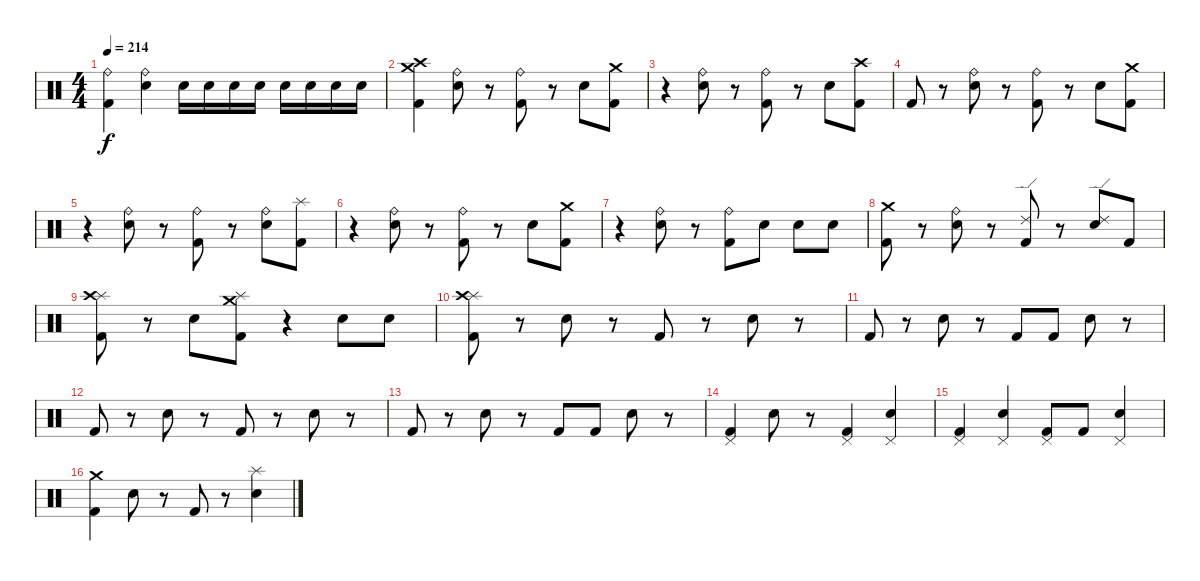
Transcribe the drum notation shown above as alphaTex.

\track "" {instrument percussion}
\staff {score}
\articulation defaults
\ts (4 4)
\tempo 214
\clef neutral
\ks c
("Ride (bell)" "Kick (hit) 2").4{dy f} ("Ride (bell)" "Electric Snare (hit)").4 "Electric Snare (hit)".16 "Electric Snare (hit)".16 "Electric Snare (hit)".16 "Electric Snare (hit)".16 "Electric Snare (hit)".16 "Electric Snare (hit)".16 "Electric Snare (hit)".16 "Electric Snare (hit)".16 |
("Crash medium (hit)" "Crash high (hit)" "Kick (hit) 2").4 ("Ride (bell)" "Electric Snare (hit)").8 r.8 ("Ride (bell)" "Kick (hit) 2").8 r.8 "Electric Snare (hit)".8 ("Crash medium (hit)" "Kick (hit) 2").8 |
r.4 ("Ride (bell)" "Electric Snare (hit)").8 r.8 ("Ride (bell)" "Kick (hit) 2").8 r.8 "Electric Snare (hit)".8 ("Crash high (hit)" "Kick (hit) 2").8 |
"Kick (hit) 2".8 r.8 ("Ride (bell)" "Electric Snare (hit)").8 r.8 ("Ride (bell)" "Kick (hit) 2").8 r.8 "Electric Snare (hit)".8 ("Crash medium (hit)" "Kick (hit) 2").8 |
r.4 ("Ride (bell)" "Electric Snare (hit)").8 r.8 ("Ride (bell)" "Kick (hit) 2").8 r.8 ("Ride (bell)" "Electric Snare (hit)").8 ("Splash (hit)" "Kick (hit) 2").8 |
r.4 ("Ride (bell)" "Electric Snare (hit)").8 r.8 ("Ride (bell)" "Kick (hit) 2").8 r.8 "Electric Snare (hit)".8 ("Crash medium (hit)" "Kick (hit) 2").8 |
r.4 ("Ride (bell)" "Electric Snare (hit)").8 r.8 ("Ride (bell)" "Kick (hit) 2").8 "Snare (hit) 2".8 "Snare (hit) 2".8 "Snare (hit) 2".8 |
("Crash medium (hit)" "Kick (hit) 2").8 r.8 ("Ride (bell)" "Electric Snare (hit)").8 r.8 ("Ride (edge) 2" "Kick (hit) 2").8 r.8 ("Ride (edge) 2" "Electric Snare (hit)").8 "Kick (hit) 2".8 |
("Splash (hit)" "Crash high (hit)" "Kick (hit) 2").8 r.8 "Electric Snare (hit)".8 ("Splash (hit)" "Crash medium (hit)" "Kick (hit) 2").8 r.4 "Electric Snare (hit)".8 "Electric Snare (hit)".8 |
("Splash (hit)" "Crash high (hit)" "Kick (hit) 2").8 r.8 "Electric Snare (hit)".8 r.8 "Kick (hit) 2".8 r.8 "Electric Snare (hit)".8 r.8 |
"Kick (hit) 2".8 r.8 "Electric Snare (hit)".8 r.8 "Kick (hit) 2".8 "Kick (hit) 2".8 "Electric Snare (hit)".8 r.8 |
"Kick (hit) 2".8 r.8 "Electric Snare (hit)".8 r.8 "Kick (hit) 2".8 r.8 "Electric Snare (hit)".8 r.8 |
"Kick (hit) 2".8 r.8 "Electric Snare (hit)".8 r.8 "Kick (hit) 2".8 "Kick (hit) 2".8 "Electric Snare (hit)".8 r.8 |
("Pedal Hi-Hat (hit)" "Kick (hit) 2").4 "Electric Snare (hit)".8 r.8 ("Pedal Hi-Hat (hit)" "Kick (hit) 2").4 ("Pedal Hi-Hat (hit)" "Electric Snare (hit)").4 |
("Pedal Hi-Hat (hit)" "Kick (hit) 2").4 ("Pedal Hi-Hat (hit)" "Electric Snare (hit)").4 ("Pedal Hi-Hat (hit)" "Kick (hit) 2").8 "Kick (hit) 2".8 ("Pedal Hi-Hat (hit)" "Electric Snare (hit)").4 |
("Crash medium (hit)" "Kick (hit) 2").4 "Electric Snare (hit)".8 r.8 "Kick (hit) 2".8 r.8 ("Splash (hit)" "Electric Snare (hit)").4
